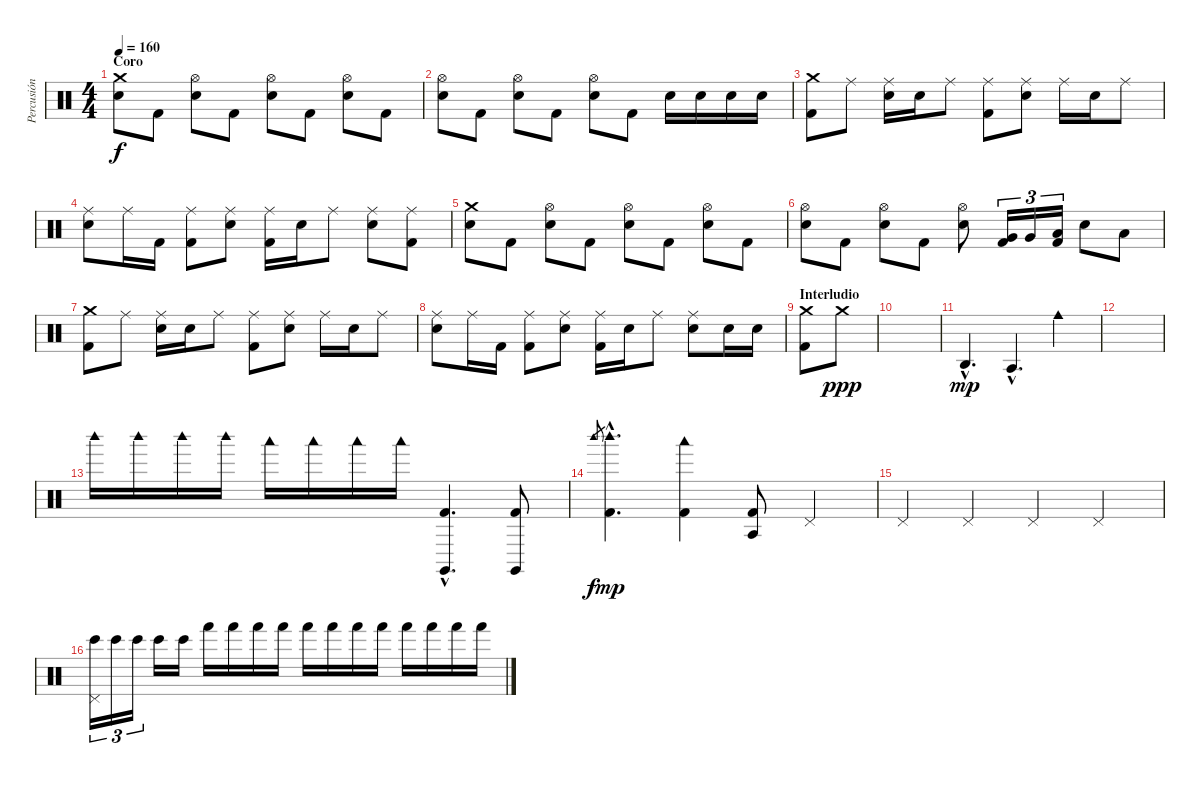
\track ("Percusión" "Percusión") {instrument percussion}
\staff {score}
\articulation defaults
\ts (4 4)
\section ("" "Coro")
\tempo 160
\clef neutral
\ks c
("Crash medium (hit)" "Electric Snare (hit)").8{dy f} "Kick (hit) 2".8 ("Hi-Hat (open)" "Electric Snare (hit)").8 "Kick (hit) 2".8 ("Hi-Hat (open)" "Electric Snare (hit)").8 "Kick (hit) 2".8 ("Hi-Hat (open)" "Electric Snare (hit)").8 "Kick (hit) 2".8 |
("Hi-Hat (open)" "Electric Snare (hit)").8 "Kick (hit) 2".8 ("Hi-Hat (open)" "Electric Snare (hit)").8 "Kick (hit) 2".8 ("Hi-Hat (open)" "Electric Snare (hit)").8 "Kick (hit) 2".8 "Electric Snare (hit)".16 "Electric Snare (hit)".16 "Electric Snare (hit)".16 "Electric Snare (hit)".16 |
("Crash medium (hit)" "Kick (hit) 2").8 "Ride (middle)".8 ("Ride (middle)" "Electric Snare (hit)").16 "Electric Snare (hit)".16 "Ride (middle)".8 ("Ride (middle)" "Kick (hit) 2").8 ("Ride (middle)" "Electric Snare (hit)").8 "Ride (middle)".16 "Electric Snare (hit)".16 "Ride (middle)".8 |
("Ride (middle)" "Electric Snare (hit)").8 "Ride (middle)".16 "Kick (hit) 2".16 ("Ride (middle)" "Kick (hit) 2").8 ("Ride (middle)" "Electric Snare (hit)").8 ("Ride (middle)" "Kick (hit) 2").16 "Electric Snare (hit)".16 "Ride (middle)".8 ("Ride (middle)" "Electric Snare (hit)").8 ("Ride (middle)" "Kick (hit) 2").8 |
("Crash medium (hit)" "Electric Snare (hit)").8 "Kick (hit) 2".8 ("Hi-Hat (open)" "Electric Snare (hit)").8 "Kick (hit) 2".8 ("Hi-Hat (open)" "Electric Snare (hit)").8 "Kick (hit) 2".8 ("Hi-Hat (open)" "Electric Snare (hit)").8 "Kick (hit) 2".8 |
("Hi-Hat (open)" "Electric Snare (hit)").8 "Kick (hit) 2".8 ("Hi-Hat (open)" "Electric Snare (hit)").8 "Kick (hit) 2".8 ("Hi-Hat (open)" "Electric Snare (hit)").8 ("Very Low Tom (hit)" "Kick (hit) 2").16{tu (3 2)} "Very Low Tom (hit)".16{tu (3 2)} ("Low Floor Tom (hit)" "Kick (hit) 2").16{tu (3 2)} "Electric Snare (hit)".8 "Low Tom (hit)".8 |
("Crash medium (hit)" "Kick (hit) 2").8 "Ride (middle)".8 ("Ride (middle)" "Electric Snare (hit)").16 "Electric Snare (hit)".16 "Ride (middle)".8 ("Ride (middle)" "Kick (hit) 2").8 ("Ride (middle)" "Electric Snare (hit)").8 "Ride (middle)".16 "Electric Snare (hit)".16 "Ride (middle)".8 |
("Ride (middle)" "Electric Snare (hit)").8 "Ride (middle)".16 "Kick (hit) 2".16 ("Ride (middle)" "Kick (hit) 2").8 ("Ride (middle)" "Electric Snare (hit)").8 ("Ride (middle)" "Kick (hit) 2").16 "Electric Snare (hit)".16 "Ride (middle)".8 ("Ride (middle)" "Electric Snare (hit)").8 "Electric Snare (hit)".16 "Electric Snare (hit)".16 |
\section ("" "Interludio")
("Crash medium (hit)" "Kick (hit) 2").8 "Crash medium (hit)".8{dy ppp} |
|
"Agogo high (hit)"{hac}.4{d dy mp} "Agogo tow (hit)"{hac}.4{d} "Cowbell medium (hit)".4 |
|
"Woodblock high (hit)".16 "Woodblock high (hit)".16 "Woodblock high (hit)".16 "Woodblock high (hit)".16 "Woodblock low (hit)".16 "Woodblock low (hit)".16 "Woodblock low (hit)".16 "Woodblock low (hit)".16 ("Claves (hit)"{hac} "Kick (hit) 2"{hac}).4{d} ("Claves (hit)" "Kick (hit) 2").8 |
"Woodblock high (hit)".8{gr dy f} ("Woodblock high (hit)"{hac} "Kick (hit) 2"{hac}).4{d dy mp} ("Woodblock low (hit)" "Kick (hit) 2").4 ("Agogo tow (hit)" "Kick (hit) 2").8 "Pedal Hi-Hat (hit)".4 |
"Pedal Hi-Hat (hit)".4 "Pedal Hi-Hat (hit)".4 "Pedal Hi-Hat (hit)".4 "Pedal Hi-Hat (hit)".4 |
("Bongo High (hit)" "Pedal Hi-Hat (hit)").16{tu (3 2)} "Bongo High (hit)".16{tu (3 2)} "Bongo High (hit)".16{tu (3 2)} "Bongo High (hit)".16 "Bongo High (hit)".16 "Hand (hit)".16 "Hand (hit)".16 "Hand (hit)".16 "Hand (hit)".16 "Hand (hit)".16 "Hand (hit)".16 "Hand (hit)".16 "Hand (hit)".16 "Hand (hit)".16 "Hand (hit)".16 "Hand (hit)".16 "Hand (hit)".16
